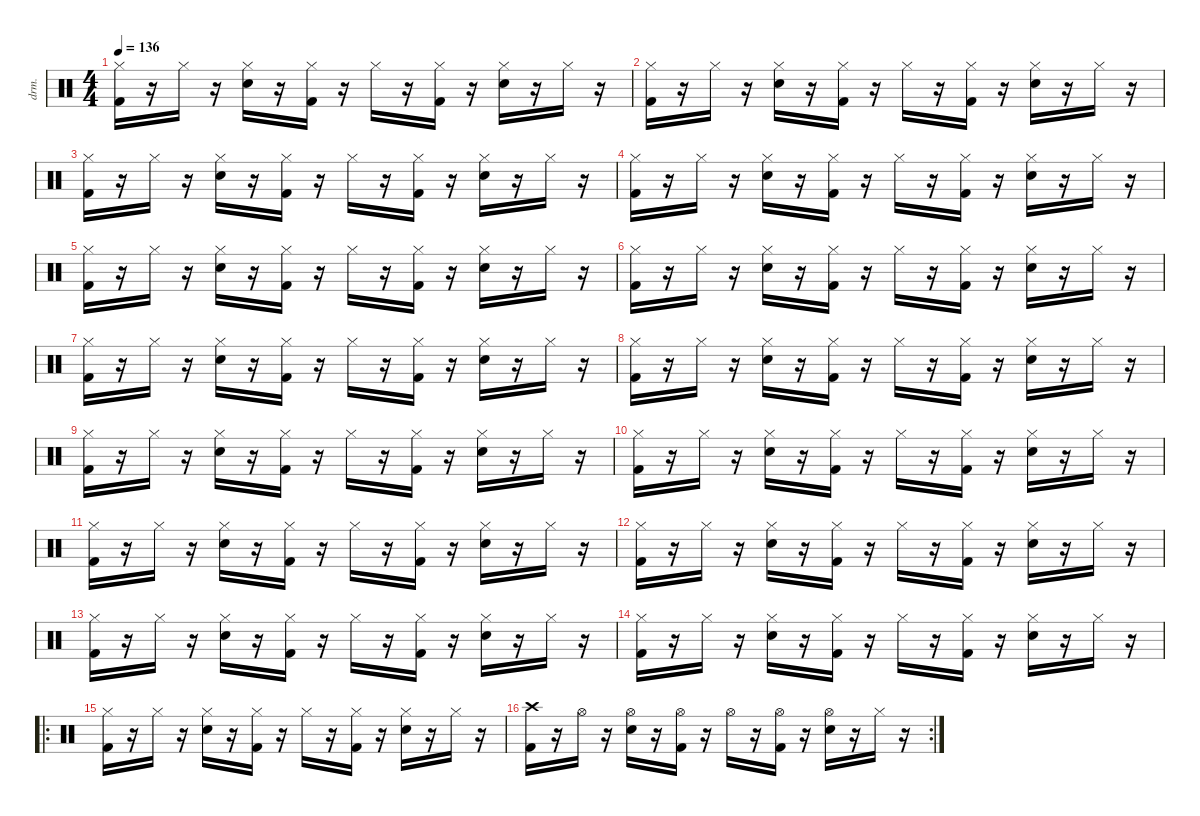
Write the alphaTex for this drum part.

\defaultSystemsLayout 4
\hideDynamics
\bracketExtendMode nobrackets
\otherSystemsTrackNameOrientation horizontal
\track ("Drums" "drm.") {instrument percussion}
\staff {score}
\articulation defaults
\ts (4 4)
\tempo 136
\clef neutral
\ks c
("Kick (hit) 2" "Hi-Hat (closed)").16{dy f} r.16 "Hi-Hat (closed)".16 r.16 ("Snare (hit) 2" "Hi-Hat (closed)").16 r.16 ("Kick (hit) 2" "Hi-Hat (closed)").16 r.16 "Hi-Hat (closed)".16 r.16 ("Kick (hit) 2" "Hi-Hat (closed)").16 r.16 ("Snare (hit) 2" "Hi-Hat (closed)").16 r.16 "Hi-Hat (closed)".16 r.16 |
("Kick (hit) 2" "Hi-Hat (closed)").16 r.16 "Hi-Hat (closed)".16 r.16 ("Snare (hit) 2" "Hi-Hat (closed)").16 r.16 ("Kick (hit) 2" "Hi-Hat (closed)").16 r.16 "Hi-Hat (closed)".16 r.16 ("Kick (hit) 2" "Hi-Hat (closed)").16 r.16 ("Snare (hit) 2" "Hi-Hat (closed)").16 r.16 "Hi-Hat (closed)".16 r.16 |
("Kick (hit) 2" "Hi-Hat (closed)").16 r.16 "Hi-Hat (closed)".16 r.16 ("Snare (hit) 2" "Hi-Hat (closed)").16 r.16 ("Kick (hit) 2" "Hi-Hat (closed)").16 r.16 "Hi-Hat (closed)".16 r.16 ("Kick (hit) 2" "Hi-Hat (closed)").16 r.16 ("Snare (hit) 2" "Hi-Hat (closed)").16 r.16 "Hi-Hat (closed)".16 r.16 |
("Kick (hit) 2" "Hi-Hat (closed)").16 r.16 "Hi-Hat (closed)".16 r.16 ("Snare (hit) 2" "Hi-Hat (closed)").16 r.16 ("Kick (hit) 2" "Hi-Hat (closed)").16 r.16 "Hi-Hat (closed)".16 r.16 ("Kick (hit) 2" "Hi-Hat (closed)").16 r.16 ("Snare (hit) 2" "Hi-Hat (closed)").16 r.16 "Hi-Hat (closed)".16 r.16 |
("Kick (hit) 2" "Hi-Hat (closed)").16 r.16 "Hi-Hat (closed)".16 r.16 ("Snare (hit) 2" "Hi-Hat (closed)").16 r.16 ("Kick (hit) 2" "Hi-Hat (closed)").16 r.16 "Hi-Hat (closed)".16 r.16 ("Kick (hit) 2" "Hi-Hat (closed)").16 r.16 ("Snare (hit) 2" "Hi-Hat (closed)").16 r.16 "Hi-Hat (closed)".16 r.16 |
("Kick (hit) 2" "Hi-Hat (closed)").16 r.16 "Hi-Hat (closed)".16 r.16 ("Snare (hit) 2" "Hi-Hat (closed)").16 r.16 ("Kick (hit) 2" "Hi-Hat (closed)").16 r.16 "Hi-Hat (closed)".16 r.16 ("Kick (hit) 2" "Hi-Hat (closed)").16 r.16 ("Snare (hit) 2" "Hi-Hat (closed)").16 r.16 "Hi-Hat (closed)".16 r.16 |
("Kick (hit) 2" "Hi-Hat (closed)").16 r.16 "Hi-Hat (closed)".16 r.16 ("Snare (hit) 2" "Hi-Hat (closed)").16 r.16 ("Kick (hit) 2" "Hi-Hat (closed)").16 r.16 "Hi-Hat (closed)".16 r.16 ("Kick (hit) 2" "Hi-Hat (closed)").16 r.16 ("Snare (hit) 2" "Hi-Hat (closed)").16 r.16 "Hi-Hat (closed)".16 r.16 |
("Kick (hit) 2" "Hi-Hat (closed)").16 r.16 "Hi-Hat (closed)".16 r.16 ("Snare (hit) 2" "Hi-Hat (closed)").16 r.16 ("Kick (hit) 2" "Hi-Hat (closed)").16 r.16 "Hi-Hat (closed)".16 r.16 ("Kick (hit) 2" "Hi-Hat (closed)").16 r.16 ("Snare (hit) 2" "Hi-Hat (closed)").16 r.16 "Hi-Hat (closed)".16 r.16 |
("Kick (hit) 2" "Hi-Hat (closed)").16 r.16 "Hi-Hat (closed)".16 r.16 ("Snare (hit) 2" "Hi-Hat (closed)").16 r.16 ("Kick (hit) 2" "Hi-Hat (closed)").16 r.16 "Hi-Hat (closed)".16 r.16 ("Kick (hit) 2" "Hi-Hat (closed)").16 r.16 ("Snare (hit) 2" "Hi-Hat (closed)").16 r.16 "Hi-Hat (closed)".16 r.16 |
("Kick (hit) 2" "Hi-Hat (closed)").16 r.16 "Hi-Hat (closed)".16 r.16 ("Snare (hit) 2" "Hi-Hat (closed)").16 r.16 ("Kick (hit) 2" "Hi-Hat (closed)").16 r.16 "Hi-Hat (closed)".16 r.16 ("Kick (hit) 2" "Hi-Hat (closed)").16 r.16 ("Snare (hit) 2" "Hi-Hat (closed)").16 r.16 "Hi-Hat (closed)".16 r.16 |
("Kick (hit) 2" "Hi-Hat (closed)").16 r.16 "Hi-Hat (closed)".16 r.16 ("Snare (hit) 2" "Hi-Hat (closed)").16 r.16 ("Kick (hit) 2" "Hi-Hat (closed)").16 r.16 "Hi-Hat (closed)".16 r.16 ("Kick (hit) 2" "Hi-Hat (closed)").16 r.16 ("Snare (hit) 2" "Hi-Hat (closed)").16 r.16 "Hi-Hat (closed)".16 r.16 |
("Kick (hit) 2" "Hi-Hat (closed)").16 r.16 "Hi-Hat (closed)".16 r.16 ("Snare (hit) 2" "Hi-Hat (closed)").16 r.16 ("Kick (hit) 2" "Hi-Hat (closed)").16 r.16 "Hi-Hat (closed)".16 r.16 ("Kick (hit) 2" "Hi-Hat (closed)").16 r.16 ("Snare (hit) 2" "Hi-Hat (closed)").16 r.16 "Hi-Hat (closed)".16 r.16 |
("Kick (hit) 2" "Hi-Hat (closed)").16 r.16 "Hi-Hat (closed)".16 r.16 ("Snare (hit) 2" "Hi-Hat (closed)").16 r.16 ("Kick (hit) 2" "Hi-Hat (closed)").16 r.16 "Hi-Hat (closed)".16 r.16 ("Kick (hit) 2" "Hi-Hat (closed)").16 r.16 ("Snare (hit) 2" "Hi-Hat (closed)").16 r.16 "Hi-Hat (closed)".16 r.16 |
("Kick (hit) 2" "Hi-Hat (closed)").16 r.16 "Hi-Hat (closed)".16 r.16 ("Snare (hit) 2" "Hi-Hat (closed)").16 r.16 ("Kick (hit) 2" "Hi-Hat (closed)").16 r.16 "Hi-Hat (closed)".16 r.16 ("Kick (hit) 2" "Hi-Hat (closed)").16 r.16 ("Snare (hit) 2" "Hi-Hat (closed)").16 r.16 "Hi-Hat (closed)".16 r.16 |
\ro
("Kick (hit) 2" "Hi-Hat (closed)").16 r.16 "Hi-Hat (closed)".16 r.16 ("Snare (hit) 2" "Hi-Hat (closed)").16 r.16 ("Kick (hit) 2" "Hi-Hat (closed)").16 r.16 "Hi-Hat (closed)".16 r.16 ("Kick (hit) 2" "Hi-Hat (closed)").16 r.16 ("Snare (hit) 2" "Hi-Hat (closed)").16 r.16 "Hi-Hat (closed)".16 r.16 |
\rc 2
("Kick (hit) 2" "Crash high (hit)").16 r.16 "Hi-Hat (open)".16 r.16 ("Snare (hit) 2" "Hi-Hat (open)").16 r.16 ("Kick (hit) 2" "Hi-Hat (open)").16 r.16 "Hi-Hat (open)".16 r.16 ("Kick (hit) 2" "Hi-Hat (open)").16 r.16 ("Snare (hit) 2" "Hi-Hat (open)").16 r.16 "Hi-Hat (closed)".16 r.16
